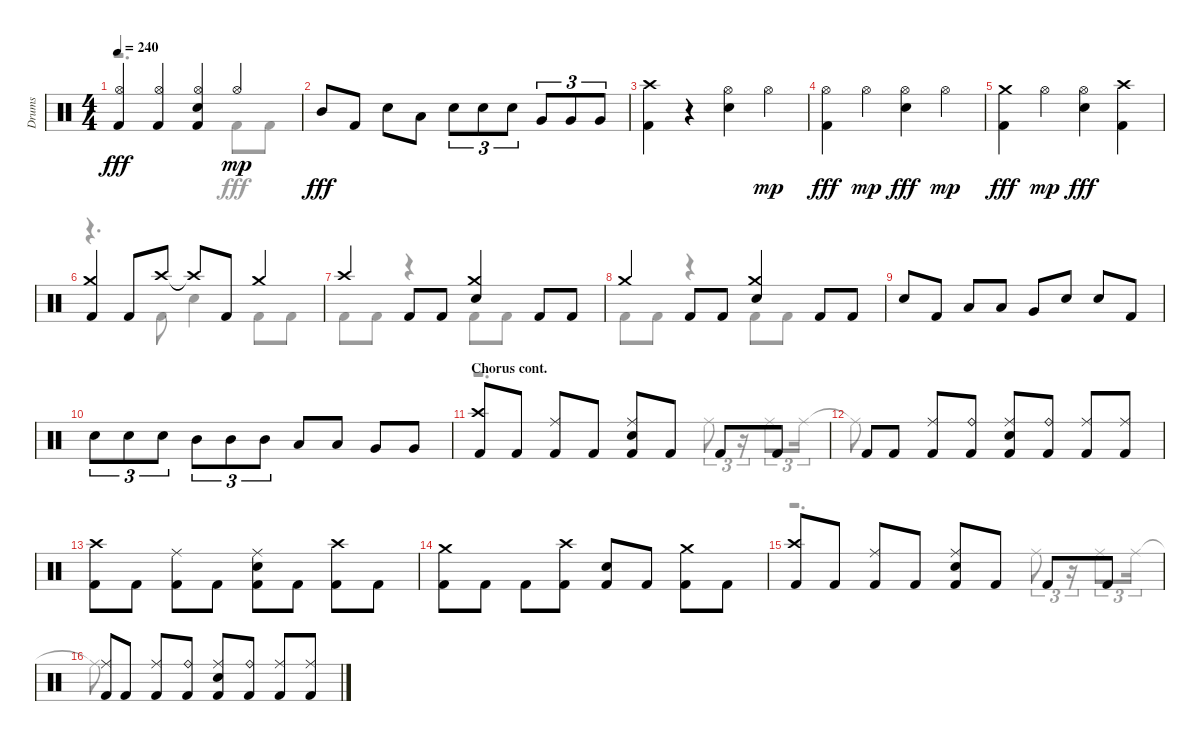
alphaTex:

\track ("Drums" "Drums") {instrument percussion}
\staff {score}
\articulation defaults
\voice
\ts (4 4)
\tempo 240
\clef neutral
\ks aminor
("Kick (hit) 2" "Hi-Hat (open)").4{dy fff} ("Kick (hit) 2" "Hi-Hat (open)").4 ("Kick (hit) 2" "Hi-Hat (open)" "Snare (hit) 2").4 "Hi-Hat (open)".4{dy mp} |
"Mid Tom (hit)".8{dy fff} "Kick (hit) 2".8 "Snare (hit) 2".8 "Low Tom (hit)".8 "Snare (hit) 2".8{tu (3 2)} "Snare (hit) 2".8{tu (3 2)} "Snare (hit) 2".8{tu (3 2)} "Very Low Tom (hit)".8{tu (3 2)} "Very Low Tom (hit)".8{tu (3 2)} "Very Low Tom (hit)".8{tu (3 2)} |
("Kick (hit) 2" "Crash high (hit)").4 r.4 ("Hi-Hat (open)" "Snare (hit) 2").4 "Hi-Hat (open)".4{dy mp} |
("Hi-Hat (open)" "Kick (hit) 2").4{dy fff} "Hi-Hat (open)".4{dy mp} ("Hi-Hat (open)" "Snare (hit) 2").4{dy fff} "Hi-Hat (open)".4{dy mp} |
("Crash medium (hit)" "Kick (hit) 2").4{dy fff} "Hi-Hat (open)".4{dy mp} ("Hi-Hat (open)" "Snare (hit) 2").4{dy fff} ("Kick (hit) 2" "Crash high (hit)").4 |
("Crash medium (hit)" "Kick (hit) 2").4 "Kick (hit) 2".8 "Crash high (hit)".8 "Crash high (hit)"{t}.8 "Kick (hit) 2".8 "Crash medium (hit)".4 |
"Crash high (hit)".4 "Kick (hit) 2".8 "Kick (hit) 2".8 ("Snare (hit) 2" "Crash medium (hit)").4 "Kick (hit) 2".8 "Kick (hit) 2".8 |
"Crash medium (hit)".4 "Kick (hit) 2".8 "Kick (hit) 2".8 ("Crash medium (hit)" "Snare (hit) 2").4 "Kick (hit) 2".8 "Kick (hit) 2".8 |
"Snare (hit) 2".8 "Kick (hit) 2".8 "Low Tom (hit)".8 "Low Tom (hit)".8 "Very Low Tom (hit)".8 "Snare (hit) 2".8 "Snare (hit) 2".8 "Kick (hit) 2".8 |
"Snare (hit) 2".8{tu (3 2)} "Snare (hit) 2".8{tu (3 2)} "Snare (hit) 2".8{tu (3 2)} "Mid Tom (hit)".8{tu (3 2)} "Mid Tom (hit)".8{tu (3 2)} "Mid Tom (hit)".8{tu (3 2)} "Low Tom (hit)".8 "Low Tom (hit)".8 "Very Low Tom (hit)".8 "Very Low Tom (hit)".8 |
\section ("" "Chorus cont.")
("Crash high (hit)" "Kick (hit) 2").8 "Kick (hit) 2".8 ("Ride (middle)" "Kick (hit) 2").8 "Kick (hit) 2".8 ("Ride (middle)" "Snare (hit) 2" "Kick (hit) 2").8 "Kick (hit) 2".8 "Kick (hit) 2".8 "Kick (hit) 2".8 |
"Kick (hit) 2".8 "Kick (hit) 2".8 ("Ride (middle)" "Kick (hit) 2").8 ("Kick (hit) 2" "Ride (bell)").8 ("Kick (hit) 2" "Snare (hit) 2" "Ride (middle)").8 ("Kick (hit) 2" "Ride (bell)").8 ("Kick (hit) 2" "Ride (middle)").8 ("Ride (middle)" "Kick (hit) 2").8 |
("Crash high (hit)" "Kick (hit) 2").8 "Kick (hit) 2".8 ("Ride (middle)" "Kick (hit) 2").8 "Kick (hit) 2".8 ("Kick (hit) 2" "Snare (hit) 2" "Ride (middle)").8 "Kick (hit) 2".8 ("Crash high (hit)" "Kick (hit) 2").8 "Kick (hit) 2".8 |
("Crash medium (hit)" "Kick (hit) 2").8 "Kick (hit) 2".8 "Kick (hit) 2".8 ("Kick (hit) 2" "Crash high (hit)").8 ("Kick (hit) 2" "Snare (hit) 2").8 "Kick (hit) 2".8 ("Kick (hit) 2" "Crash medium (hit)").8 "Kick (hit) 2".8 |
("Crash high (hit)" "Kick (hit) 2").8 "Kick (hit) 2".8 ("Kick (hit) 2" "Ride (middle)").8 "Kick (hit) 2".8 ("Ride (middle)" "Kick (hit) 2" "Snare (hit) 2").8 "Kick (hit) 2".8 "Kick (hit) 2".8 "Kick (hit) 2".8 |
("Ride (middle)" "Kick (hit) 2").8 "Kick (hit) 2".8 ("Ride (middle)" "Kick (hit) 2").8 ("Ride (bell)" "Kick (hit) 2").8 ("Kick (hit) 2" "Snare (hit) 2" "Ride (middle)").8 ("Kick (hit) 2" "Ride (bell)").8 ("Ride (middle)" "Kick (hit) 2").8 ("Ride (middle)" "Kick (hit) 2").8
\voice
\clef neutral
\ottava regular
\simile none
\ks aminor
r.2{d dy fff} "Kick (hit) 2".8 "Kick (hit) 2".8 |
|
|
|
|
r.4{d} "Kick (hit) 2".8 "Snare (hit) 2".4 "Kick (hit) 2".8 "Kick (hit) 2".8 |
"Kick (hit) 2".8 "Kick (hit) 2".8 r.4 "Kick (hit) 2".8 "Kick (hit) 2".8 |
"Kick (hit) 2".8 "Kick (hit) 2".8 r.4 "Kick (hit) 2".8 "Kick (hit) 2".8 |
|
|
r.2{d} "Ride (middle)".8{tu (3 2)} r.16{tu (3 2)} "Ride (middle)".8{tu (3 2)} "Ride (middle)".16{tu (3 2)} |
"Ride (middle)"{t}.8 |
|
|
r.2{d} "Ride (middle)".8{tu (3 2)} r.16{tu (3 2)} "Ride (middle)".8{tu (3 2)} "Ride (middle)".16{tu (3 2)} |
"Ride (middle)"{t}.8
